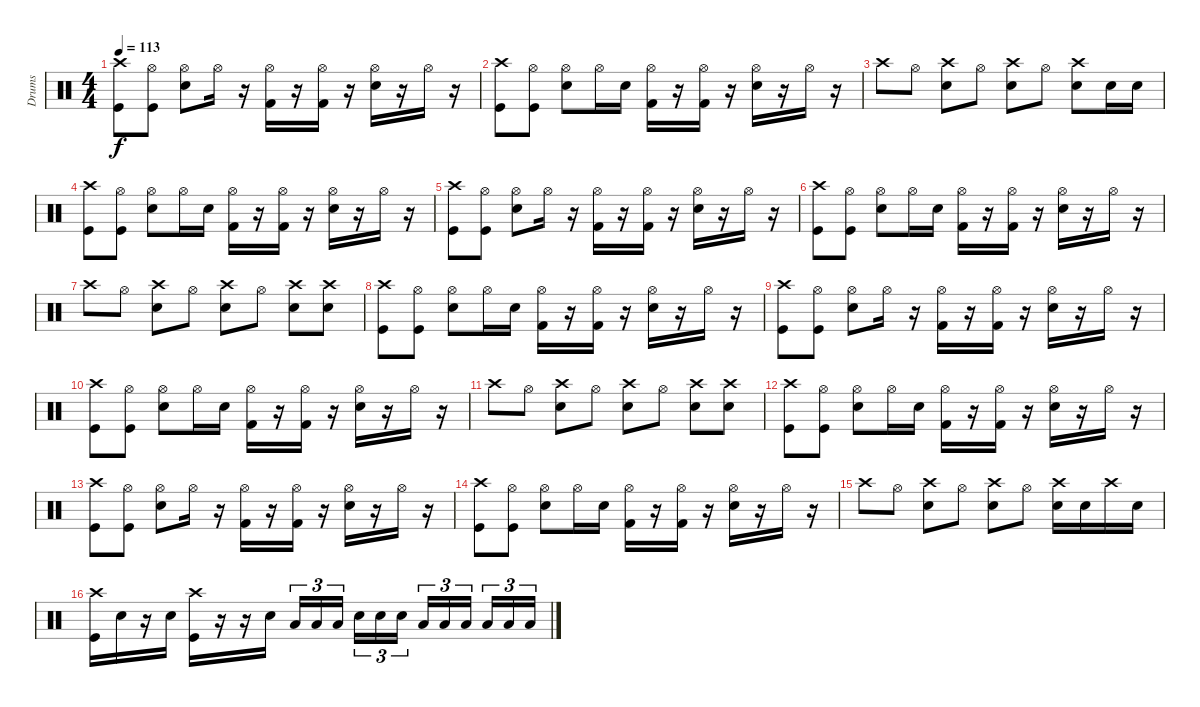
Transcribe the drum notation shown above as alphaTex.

\track ("Drums" "Drums") {instrument percussion}
\staff {score}
\articulation defaults
\ts (4 4)
\tempo 113
\clef neutral
\ks c
("Crash high (hit)" "Kick (hit)").8{dy f} ("Hi-Hat (open)" "Kick (hit)").8 ("Hi-Hat (open)" "Electric Snare (hit)").8 "Hi-Hat (open)".16 r.16 ("Hi-Hat (open)" "Kick (hit) 2").16 r.16 ("Hi-Hat (open)" "Kick (hit) 2").16 r.16 ("Hi-Hat (open)" "Electric Snare (hit)").16 r.16 "Hi-Hat (open)".16 r.16 |
("Crash high (hit)" "Kick (hit)").8 ("Hi-Hat (open)" "Kick (hit)").8 ("Hi-Hat (open)" "Electric Snare (hit)").8 "Hi-Hat (open)".16 "Electric Snare (hit)".16 ("Hi-Hat (open)" "Kick (hit) 2").16 r.16 ("Hi-Hat (open)" "Kick (hit) 2").16 r.16 ("Hi-Hat (open)" "Electric Snare (hit)").16 r.16 "Hi-Hat (open)".16 r.16 |
"Crash high (hit)".8 "Hi-Hat (open)".8 ("Crash high (hit)" "Electric Snare (hit)").8 "Hi-Hat (open)".8 ("Crash high (hit)" "Electric Snare (hit)").8 "Hi-Hat (open)".8 ("Crash high (hit)" "Electric Snare (hit)").8 "Electric Snare (hit)".16 "Electric Snare (hit)".16 |
("Crash high (hit)" "Kick (hit)").8 ("Hi-Hat (open)" "Kick (hit)").8 ("Hi-Hat (open)" "Electric Snare (hit)").8 "Hi-Hat (open)".16 "Electric Snare (hit)".16 ("Hi-Hat (open)" "Kick (hit) 2").16 r.16 ("Hi-Hat (open)" "Kick (hit) 2").16 r.16 ("Hi-Hat (open)" "Electric Snare (hit)").16 r.16 "Hi-Hat (open)".16 r.16 |
("Crash high (hit)" "Kick (hit)").8 ("Hi-Hat (open)" "Kick (hit)").8 ("Hi-Hat (open)" "Electric Snare (hit)").8 "Hi-Hat (open)".16 r.16 ("Hi-Hat (open)" "Kick (hit) 2").16 r.16 ("Hi-Hat (open)" "Kick (hit) 2").16 r.16 ("Hi-Hat (open)" "Electric Snare (hit)").16 r.16 "Hi-Hat (open)".16 r.16 |
("Crash high (hit)" "Kick (hit)").8 ("Hi-Hat (open)" "Kick (hit)").8 ("Hi-Hat (open)" "Electric Snare (hit)").8 "Hi-Hat (open)".16 "Electric Snare (hit)".16 ("Hi-Hat (open)" "Kick (hit) 2").16 r.16 ("Hi-Hat (open)" "Kick (hit) 2").16 r.16 ("Hi-Hat (open)" "Electric Snare (hit)").16 r.16 "Hi-Hat (open)".16 r.16 |
"Crash high (hit)".8 "Hi-Hat (open)".8 ("Crash high (hit)" "Electric Snare (hit)").8 "Hi-Hat (open)".8 ("Crash high (hit)" "Electric Snare (hit)").8 "Hi-Hat (open)".8 ("Crash high (hit)" "Electric Snare (hit)").8 ("Crash high (hit)" "Electric Snare (hit)").8 |
("Crash high (hit)" "Kick (hit)").8 ("Hi-Hat (open)" "Kick (hit)").8 ("Hi-Hat (open)" "Electric Snare (hit)").8 "Hi-Hat (open)".16 "Electric Snare (hit)".16 ("Hi-Hat (open)" "Kick (hit) 2").16 r.16 ("Hi-Hat (open)" "Kick (hit) 2").16 r.16 ("Hi-Hat (open)" "Electric Snare (hit)").16 r.16 "Hi-Hat (open)".16 r.16 |
("Crash high (hit)" "Kick (hit)").8 ("Hi-Hat (open)" "Kick (hit)").8 ("Hi-Hat (open)" "Electric Snare (hit)").8 "Hi-Hat (open)".16 r.16 ("Hi-Hat (open)" "Kick (hit) 2").16 r.16 ("Hi-Hat (open)" "Kick (hit) 2").16 r.16 ("Hi-Hat (open)" "Electric Snare (hit)").16 r.16 "Hi-Hat (open)".16 r.16 |
("Crash high (hit)" "Kick (hit)").8 ("Hi-Hat (open)" "Kick (hit)").8 ("Hi-Hat (open)" "Electric Snare (hit)").8 "Hi-Hat (open)".16 "Electric Snare (hit)".16 ("Hi-Hat (open)" "Kick (hit) 2").16 r.16 ("Hi-Hat (open)" "Kick (hit) 2").16 r.16 ("Hi-Hat (open)" "Electric Snare (hit)").16 r.16 "Hi-Hat (open)".16 r.16 |
"Crash high (hit)".8 "Hi-Hat (open)".8 ("Crash high (hit)" "Electric Snare (hit)").8 "Hi-Hat (open)".8 ("Crash high (hit)" "Electric Snare (hit)").8 "Hi-Hat (open)".8 ("Crash high (hit)" "Electric Snare (hit)").8 ("Crash high (hit)" "Electric Snare (hit)").8 |
("Crash high (hit)" "Kick (hit)").8 ("Hi-Hat (open)" "Kick (hit)").8 ("Hi-Hat (open)" "Electric Snare (hit)").8 "Hi-Hat (open)".16 "Electric Snare (hit)".16 ("Hi-Hat (open)" "Kick (hit) 2").16 r.16 ("Hi-Hat (open)" "Kick (hit) 2").16 r.16 ("Hi-Hat (open)" "Electric Snare (hit)").16 r.16 "Hi-Hat (open)".16 r.16 |
("Crash high (hit)" "Kick (hit)").8 ("Hi-Hat (open)" "Kick (hit)").8 ("Hi-Hat (open)" "Electric Snare (hit)").8 "Hi-Hat (open)".16 r.16 ("Hi-Hat (open)" "Kick (hit) 2").16 r.16 ("Hi-Hat (open)" "Kick (hit) 2").16 r.16 ("Hi-Hat (open)" "Electric Snare (hit)").16 r.16 "Hi-Hat (open)".16 r.16 |
("Crash high (hit)" "Kick (hit)").8 ("Hi-Hat (open)" "Kick (hit)").8 ("Hi-Hat (open)" "Electric Snare (hit)").8 "Hi-Hat (open)".16 "Electric Snare (hit)".16 ("Hi-Hat (open)" "Kick (hit) 2").16 r.16 ("Hi-Hat (open)" "Kick (hit) 2").16 r.16 ("Hi-Hat (open)" "Electric Snare (hit)").16 r.16 "Hi-Hat (open)".16 r.16 |
"Crash high (hit)".8 "Hi-Hat (open)".8 ("Crash high (hit)" "Electric Snare (hit)").8 "Hi-Hat (open)".8 ("Crash high (hit)" "Electric Snare (hit)").8 "Hi-Hat (open)".8 ("Crash high (hit)" "Electric Snare (hit)").16 "Electric Snare (hit)".16 "Crash high (hit)".16 "Electric Snare (hit)".16 |
("Crash high (hit)" "Kick (hit)").16 "Electric Snare (hit)".16 r.16 "Electric Snare (hit)".16 ("Crash high (hit)" "Kick (hit)").16 r.16 r.16 "Electric Snare (hit)".16 "Low Tom (hit)".16{tu (3 2)} "Low Tom (hit)".16{tu (3 2)} "Low Tom (hit)".16{tu (3 2)} "Electric Snare (hit)".16{tu (3 2)} "Electric Snare (hit)".16{tu (3 2)} "Electric Snare (hit)".16{tu (3 2)} "Low Tom (hit)".16{tu (3 2)} "Low Tom (hit)".16{tu (3 2)} "Low Tom (hit)".16{tu (3 2)} "Low Tom (hit)".16{tu (3 2)} "Low Tom (hit)".16{tu (3 2)} "Low Tom (hit)".16{tu (3 2)}
